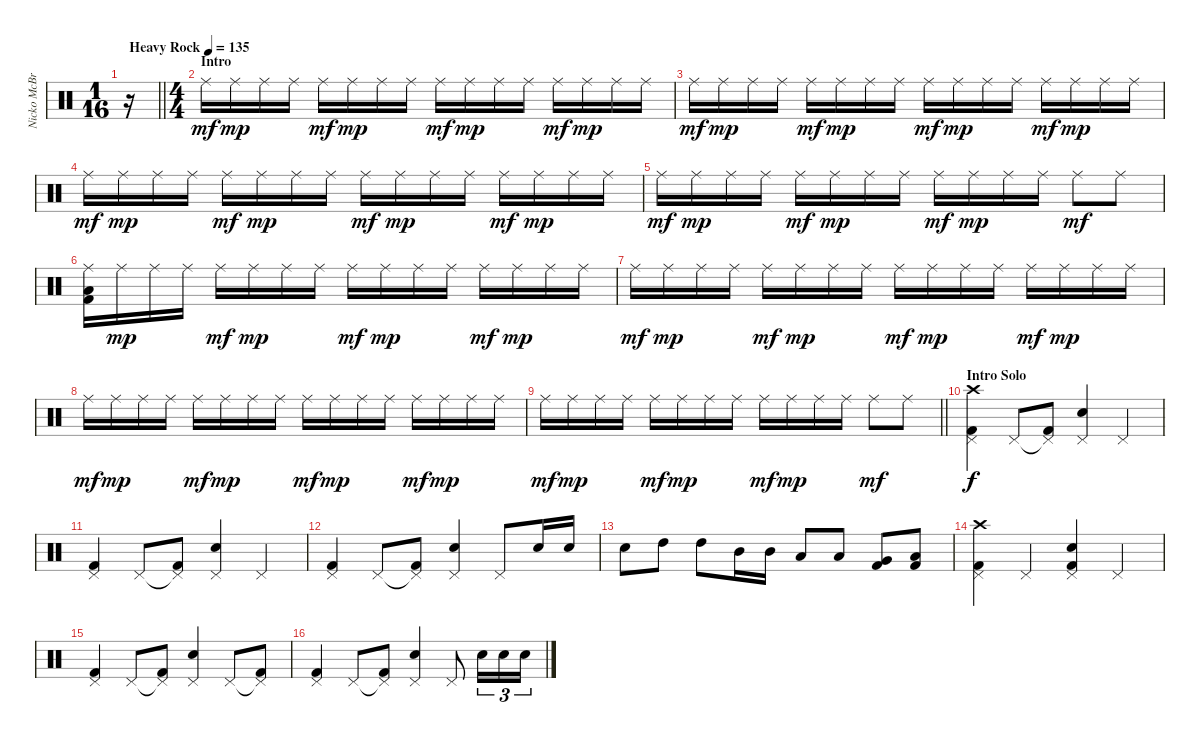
\track ("Nicko McBrain" "Nicko McBr") {instrument percussion}
\staff {score}
\articulation defaults
\ts (1 16)
\tempo (135 "Heavy Rock")
\clef neutral
\barLineRight lightlight
\ks c
r.16{dy mf} |
\ts (4 4)
\section ("" "Intro")
"Ride (middle)".16 "Ride (middle)".16{dy mp} "Ride (middle)".16 "Ride (middle)".16 "Ride (middle)".16{dy mf} "Ride (middle)".16{dy mp} "Ride (middle)".16 "Ride (middle)".16 "Ride (middle)".16{dy mf} "Ride (middle)".16{dy mp} "Ride (middle)".16 "Ride (middle)".16 "Ride (middle)".16{dy mf} "Ride (middle)".16{dy mp} "Ride (middle)".16 "Ride (middle)".16 |
"Ride (middle)".16{dy mf} "Ride (middle)".16{dy mp} "Ride (middle)".16 "Ride (middle)".16 "Ride (middle)".16{dy mf} "Ride (middle)".16{dy mp} "Ride (middle)".16 "Ride (middle)".16 "Ride (middle)".16{dy mf} "Ride (middle)".16{dy mp} "Ride (middle)".16 "Ride (middle)".16 "Ride (middle)".16{dy mf} "Ride (middle)".16{dy mp} "Ride (middle)".16 "Ride (middle)".16 |
"Ride (middle)".16{dy mf} "Ride (middle)".16{dy mp} "Ride (middle)".16 "Ride (middle)".16 "Ride (middle)".16{dy mf} "Ride (middle)".16{dy mp} "Ride (middle)".16 "Ride (middle)".16 "Ride (middle)".16{dy mf} "Ride (middle)".16{dy mp} "Ride (middle)".16 "Ride (middle)".16 "Ride (middle)".16{dy mf} "Ride (middle)".16{dy mp} "Ride (middle)".16 "Ride (middle)".16 |
"Ride (middle)".16{dy mf} "Ride (middle)".16{dy mp} "Ride (middle)".16 "Ride (middle)".16 "Ride (middle)".16{dy mf} "Ride (middle)".16{dy mp} "Ride (middle)".16 "Ride (middle)".16 "Ride (middle)".16{dy mf} "Ride (middle)".16{dy mp} "Ride (middle)".16 "Ride (middle)".16 "Ride (middle)".8{dy mf} "Ride (middle)".8 |
("Ride (middle)" "Low Floor Tom (hit)" "Kick (hit) 2").16 "Ride (middle)".16{dy mp} "Ride (middle)".16 "Ride (middle)".16 "Ride (middle)".16{dy mf} "Ride (middle)".16{dy mp} "Ride (middle)".16 "Ride (middle)".16 "Ride (middle)".16{dy mf} "Ride (middle)".16{dy mp} "Ride (middle)".16 "Ride (middle)".16 "Ride (middle)".16{dy mf} "Ride (middle)".16{dy mp} "Ride (middle)".16 "Ride (middle)".16 |
"Ride (middle)".16{dy mf} "Ride (middle)".16{dy mp} "Ride (middle)".16 "Ride (middle)".16 "Ride (middle)".16{dy mf} "Ride (middle)".16{dy mp} "Ride (middle)".16 "Ride (middle)".16 "Ride (middle)".16{dy mf} "Ride (middle)".16{dy mp} "Ride (middle)".16 "Ride (middle)".16 "Ride (middle)".16{dy mf} "Ride (middle)".16{dy mp} "Ride (middle)".16 "Ride (middle)".16 |
"Ride (middle)".16{dy mf} "Ride (middle)".16{dy mp} "Ride (middle)".16 "Ride (middle)".16 "Ride (middle)".16{dy mf} "Ride (middle)".16{dy mp} "Ride (middle)".16 "Ride (middle)".16 "Ride (middle)".16{dy mf} "Ride (middle)".16{dy mp} "Ride (middle)".16 "Ride (middle)".16 "Ride (middle)".16{dy mf} "Ride (middle)".16{dy mp} "Ride (middle)".16 "Ride (middle)".16 |
\barLineRight lightlight "Ride (middle)".16{dy mf} "Ride (middle)".16{dy mp} "Ride (middle)".16 "Ride (middle)".16 "Ride (middle)".16{dy mf} "Ride (middle)".16{dy mp} "Ride (middle)".16 "Ride (middle)".16 "Ride (middle)".16{dy mf} "Ride (middle)".16{dy mp} "Ride (middle)".16 "Ride (middle)".16 "Ride (middle)".8{dy mf} "Ride (middle)".8
|
\section ("" "Intro Solo")
("Pedal Hi-Hat (hit)" "Crash high (hit)" "Kick (hit) 2").4{dy f} "Pedal Hi-Hat (hit)".8 ("Pedal Hi-Hat (hit)"{t} "Kick (hit) 2").8 ("Pedal Hi-Hat (hit)" "Snare (hit) 2").4 "Pedal Hi-Hat (hit)".4 |
("Pedal Hi-Hat (hit)" "Kick (hit) 2").4 "Pedal Hi-Hat (hit)".8 ("Pedal Hi-Hat (hit)"{t} "Kick (hit) 2").8 ("Pedal Hi-Hat (hit)" "Snare (hit) 2").4 "Pedal Hi-Hat (hit)".4 |
("Pedal Hi-Hat (hit)" "Kick (hit) 2").4 "Pedal Hi-Hat (hit)".8 ("Pedal Hi-Hat (hit)"{t} "Kick (hit) 2").8 ("Pedal Hi-Hat (hit)" "Snare (hit) 2").4 "Pedal Hi-Hat (hit)".8 "Snare (hit) 2".16 "Snare (hit) 2".16 |
"Snare (hit) 2".8 "High Tom (hit)".8 "High Tom (hit)".8 "Mid Tom (hit)".16 "Mid Tom (hit)".16 "Low Tom (hit)".8 "Low Tom (hit)".8 ("Very Low Tom (hit)" "Kick (hit) 2").8 ("Low Floor Tom (hit)" "Kick (hit) 2").8 |
("Pedal Hi-Hat (hit)" "Crash high (hit)" "Kick (hit) 2").4 "Pedal Hi-Hat (hit)".4 ("Pedal Hi-Hat (hit)" "Snare (hit) 2" "Kick (hit) 2").4 "Pedal Hi-Hat (hit)".4 |
("Pedal Hi-Hat (hit)" "Kick (hit) 2").4 "Pedal Hi-Hat (hit)".8 ("Pedal Hi-Hat (hit)"{t} "Kick (hit) 2").8 ("Pedal Hi-Hat (hit)" "Snare (hit) 2").4 "Pedal Hi-Hat (hit)".8 ("Pedal Hi-Hat (hit)"{t} "Kick (hit) 2").8 |
("Pedal Hi-Hat (hit)" "Kick (hit) 2").4 "Pedal Hi-Hat (hit)".8 ("Pedal Hi-Hat (hit)"{t} "Kick (hit) 2").8 ("Pedal Hi-Hat (hit)" "Snare (hit) 2").4 "Pedal Hi-Hat (hit)".8 "Snare (hit) 2".16{tu (3 2)} "Snare (hit) 2".16{tu (3 2)} "Snare (hit) 2".16{tu (3 2)}
